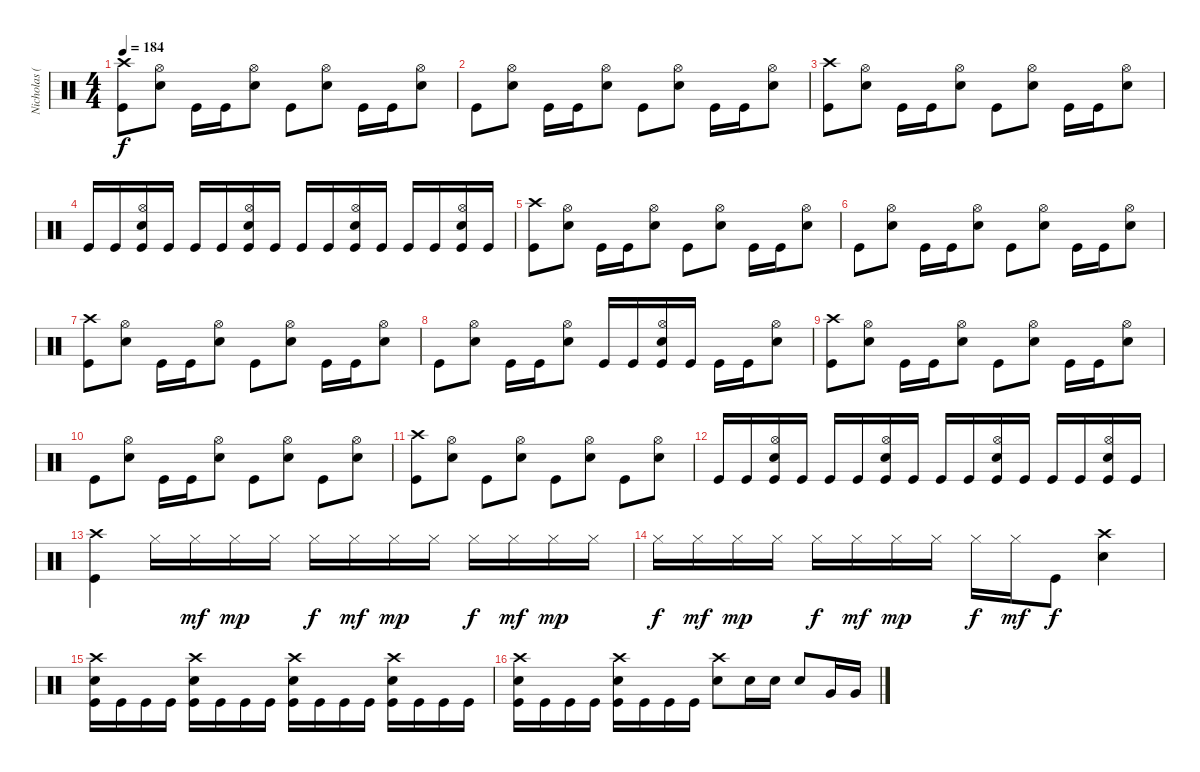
\track ("Nicholas (Drums)" "Nicholas (") {instrument percussion}
\staff {score}
\articulation defaults
\ts (4 4)
\tempo 184
\clef neutral
\ks c
("Crash high (hit)" "Kick (hit)").8{dy f} ("Hi-Hat (open)" "Electric Snare (hit)").8 "Kick (hit)".16 "Kick (hit)".16 ("Hi-Hat (open)" "Electric Snare (hit)").8 "Kick (hit)".8 ("Hi-Hat (open)" "Electric Snare (hit)").8 "Kick (hit)".16 "Kick (hit)".16 ("Hi-Hat (open)" "Electric Snare (hit)").8 |
"Kick (hit)".8 ("Hi-Hat (open)" "Electric Snare (hit)").8 "Kick (hit)".16 "Kick (hit)".16 ("Hi-Hat (open)" "Electric Snare (hit)").8 "Kick (hit)".8 ("Hi-Hat (open)" "Electric Snare (hit)").8 "Kick (hit)".16 "Kick (hit)".16 ("Hi-Hat (open)" "Electric Snare (hit)").8 |
("Crash high (hit)" "Kick (hit)").8 ("Hi-Hat (open)" "Electric Snare (hit)").8 "Kick (hit)".16 "Kick (hit)".16 ("Hi-Hat (open)" "Electric Snare (hit)").8 "Kick (hit)".8 ("Hi-Hat (open)" "Electric Snare (hit)").8 "Kick (hit)".16 "Kick (hit)".16 ("Hi-Hat (open)" "Electric Snare (hit)").8 |
"Kick (hit)".16 "Kick (hit)".16 ("Hi-Hat (open)" "Electric Snare (hit)" "Kick (hit)").16 "Kick (hit)".16 "Kick (hit)".16 "Kick (hit)".16 ("Hi-Hat (open)" "Electric Snare (hit)" "Kick (hit)").16 "Kick (hit)".16 "Kick (hit)".16 "Kick (hit)".16 ("Hi-Hat (open)" "Electric Snare (hit)" "Kick (hit)").16 "Kick (hit)".16 "Kick (hit)".16 "Kick (hit)".16 ("Hi-Hat (open)" "Electric Snare (hit)" "Kick (hit)").16 "Kick (hit)".16 |
("Crash high (hit)" "Kick (hit)").8 ("Hi-Hat (open)" "Electric Snare (hit)").8 "Kick (hit)".16 "Kick (hit)".16 ("Hi-Hat (open)" "Electric Snare (hit)").8 "Kick (hit)".8 ("Hi-Hat (open)" "Electric Snare (hit)").8 "Kick (hit)".16 "Kick (hit)".16 ("Hi-Hat (open)" "Electric Snare (hit)").8 |
"Kick (hit)".8 ("Hi-Hat (open)" "Electric Snare (hit)").8 "Kick (hit)".16 "Kick (hit)".16 ("Hi-Hat (open)" "Electric Snare (hit)").8 "Kick (hit)".8 ("Hi-Hat (open)" "Electric Snare (hit)").8 "Kick (hit)".16 "Kick (hit)".16 ("Hi-Hat (open)" "Electric Snare (hit)").8 |
("Crash high (hit)" "Kick (hit)").8 ("Hi-Hat (open)" "Electric Snare (hit)").8 "Kick (hit)".16 "Kick (hit)".16 ("Hi-Hat (open)" "Electric Snare (hit)").8 "Kick (hit)".8 ("Hi-Hat (open)" "Electric Snare (hit)").8 "Kick (hit)".16 "Kick (hit)".16 ("Hi-Hat (open)" "Electric Snare (hit)").8 |
"Kick (hit)".8 ("Hi-Hat (open)" "Electric Snare (hit)").8 "Kick (hit)".16 "Kick (hit)".16 ("Hi-Hat (open)" "Electric Snare (hit)").8 "Kick (hit)".16 "Kick (hit)".16 ("Hi-Hat (open)" "Electric Snare (hit)" "Kick (hit)").16 "Kick (hit)".16 "Kick (hit)".16 "Kick (hit)".16 ("Hi-Hat (open)" "Electric Snare (hit)").8 |
("Crash high (hit)" "Kick (hit)").8 ("Hi-Hat (open)" "Electric Snare (hit)").8 "Kick (hit)".16 "Kick (hit)".16 ("Hi-Hat (open)" "Electric Snare (hit)").8 "Kick (hit)".8 ("Hi-Hat (open)" "Electric Snare (hit)").8 "Kick (hit)".16 "Kick (hit)".16 ("Hi-Hat (open)" "Electric Snare (hit)").8 |
"Kick (hit)".8 ("Hi-Hat (open)" "Electric Snare (hit)").8 "Kick (hit)".16 "Kick (hit)".16 ("Hi-Hat (open)" "Electric Snare (hit)").8 "Kick (hit)".8 ("Hi-Hat (open)" "Electric Snare (hit)").8 "Kick (hit)".8 ("Hi-Hat (open)" "Electric Snare (hit)").8 |
("Crash high (hit)" "Kick (hit)").8 ("Hi-Hat (open)" "Electric Snare (hit)").8 "Kick (hit)".8 ("Hi-Hat (open)" "Electric Snare (hit)").8 "Kick (hit)".8 ("Hi-Hat (open)" "Electric Snare (hit)").8 "Kick (hit)".8 ("Hi-Hat (open)" "Electric Snare (hit)").8 |
"Kick (hit)".16 "Kick (hit)".16 ("Hi-Hat (open)" "Electric Snare (hit)" "Kick (hit)").16 "Kick (hit)".16 "Kick (hit)".16 "Kick (hit)".16 ("Hi-Hat (open)" "Electric Snare (hit)" "Kick (hit)").16 "Kick (hit)".16 "Kick (hit)".16 "Kick (hit)".16 ("Hi-Hat (open)" "Electric Snare (hit)" "Kick (hit)").16 "Kick (hit)".16 "Kick (hit)".16 "Kick (hit)".16 ("Hi-Hat (open)" "Electric Snare (hit)" "Kick (hit)").16 "Kick (hit)".16 |
("Crash high (hit)" "Kick (hit)").4 "Hi-Hat (closed)".16 "Hi-Hat (closed)".16{dy mf} "Hi-Hat (closed)".16{dy mp} "Hi-Hat (closed)".16 "Hi-Hat (closed)".16{dy f} "Hi-Hat (closed)".16{dy mf} "Hi-Hat (closed)".16{dy mp} "Hi-Hat (closed)".16 "Hi-Hat (closed)".16{dy f} "Hi-Hat (closed)".16{dy mf} "Hi-Hat (closed)".16{dy mp} "Hi-Hat (closed)".16 |
"Hi-Hat (closed)".16{dy f} "Hi-Hat (closed)".16{dy mf} "Hi-Hat (closed)".16{dy mp} "Hi-Hat (closed)".16 "Hi-Hat (closed)".16{dy f} "Hi-Hat (closed)".16{dy mf} "Hi-Hat (closed)".16{dy mp} "Hi-Hat (closed)".16 "Hi-Hat (closed)".16{dy f} "Hi-Hat (closed)".16{dy mf} "Kick (hit)".8{dy f} ("Crash high (hit)" "Electric Snare (hit)").4 |
("Crash high (hit)" "Electric Snare (hit)" "Kick (hit)").16 "Kick (hit)".16 "Kick (hit)".16 "Kick (hit)".16 ("Crash high (hit)" "Electric Snare (hit)" "Kick (hit)").16 "Kick (hit)".16 "Kick (hit)".16 "Kick (hit)".16 ("Crash high (hit)" "Electric Snare (hit)" "Kick (hit)").16 "Kick (hit)".16 "Kick (hit)".16 "Kick (hit)".16 ("Crash high (hit)" "Electric Snare (hit)" "Kick (hit)").16 "Kick (hit)".16 "Kick (hit)".16 "Kick (hit)".16 |
("Crash high (hit)" "Electric Snare (hit)" "Kick (hit)").16 "Kick (hit)".16 "Kick (hit)".16 "Kick (hit)".16 ("Crash high (hit)" "Electric Snare (hit)" "Kick (hit)").16 "Kick (hit)".16 "Kick (hit)".16 "Kick (hit)".16 ("Crash high (hit)" "Electric Snare (hit)").8 "Electric Snare (hit)".16 "Electric Snare (hit)".16 "Electric Snare (hit)".8 "Very Low Tom (hit)".16 "Very Low Tom (hit)".16
